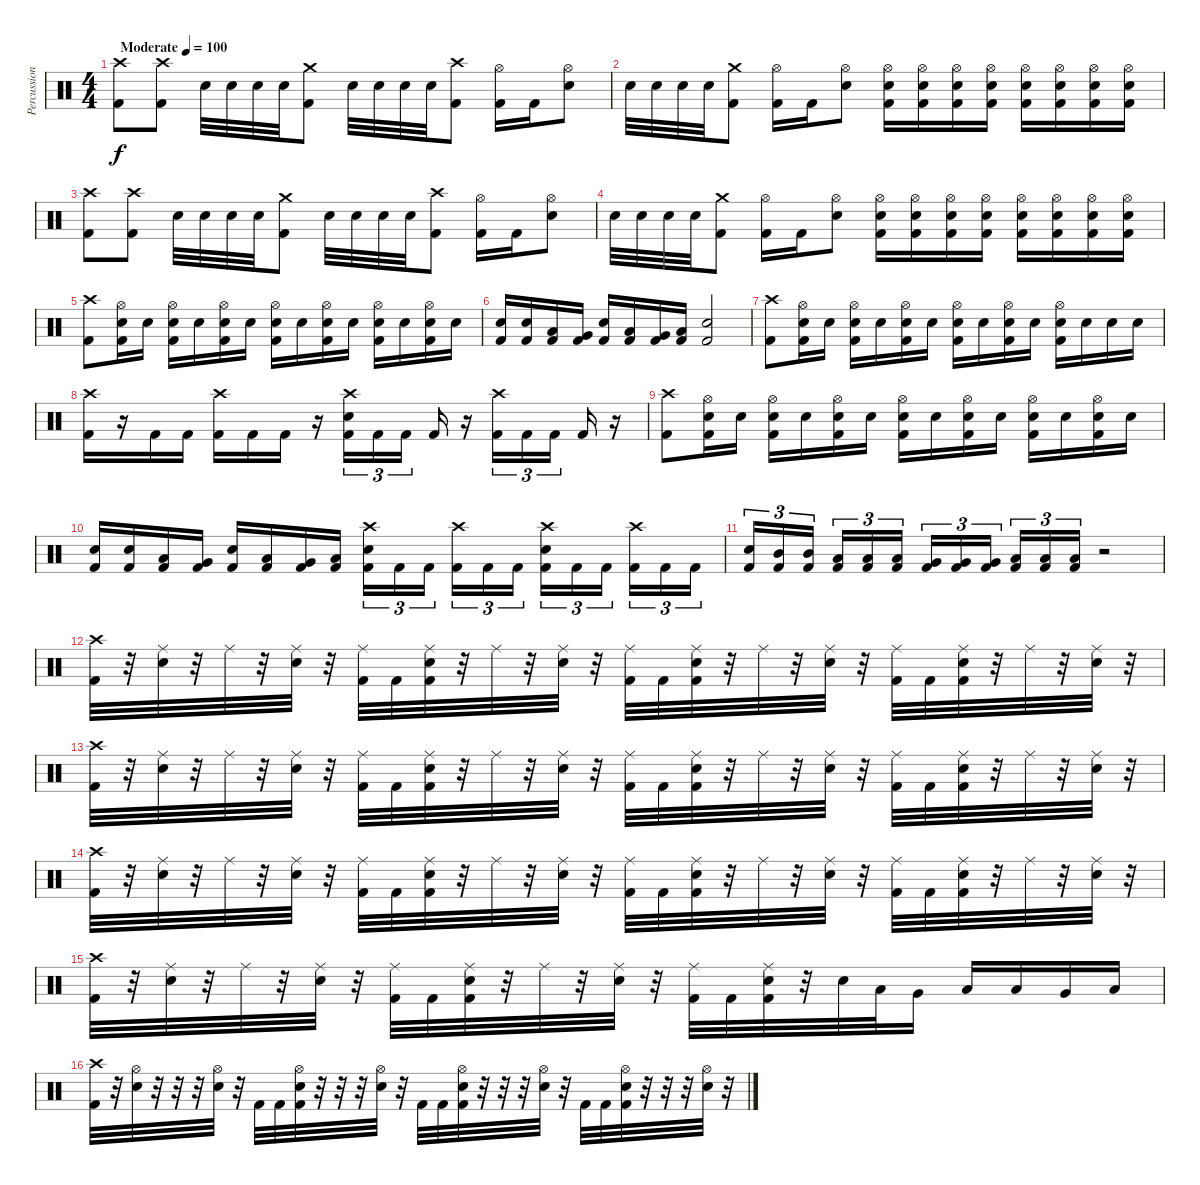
\track ("Percussion" "Percussion") {instrument percussion}
\staff {score}
\articulation defaults
\ts (4 4)
\tempo (100 "Moderate")
\clef neutral
\ks c
("Crash high (hit)" "Kick (hit) 2").8{dy f} ("Crash high (hit)" "Kick (hit) 2").8 "Electric Snare (hit)".32 "Electric Snare (hit)".32 "Electric Snare (hit)".32 "Electric Snare (hit)".32 ("Crash medium (hit)" "Kick (hit) 2").8 "Electric Snare (hit)".32 "Electric Snare (hit)".32 "Electric Snare (hit)".32 "Electric Snare (hit)".32 ("Crash high (hit)" "Kick (hit) 2").8 ("Hi-Hat (open)" "Kick (hit) 2").16 "Kick (hit) 2".16 ("Hi-Hat (open)" "Electric Snare (hit)").8 |
"Electric Snare (hit)".32 "Electric Snare (hit)".32 "Electric Snare (hit)".32 "Electric Snare (hit)".32 ("Crash medium (hit)" "Kick (hit) 2").8 ("Hi-Hat (open)" "Kick (hit) 2").16 "Kick (hit) 2".16 ("Hi-Hat (open)" "Electric Snare (hit)").8 ("Hi-Hat (open)" "Electric Snare (hit)" "Kick (hit) 2").16 ("Hi-Hat (open)" "Electric Snare (hit)" "Kick (hit) 2").16 ("Hi-Hat (open)" "Electric Snare (hit)" "Kick (hit) 2").16 ("Hi-Hat (open)" "Electric Snare (hit)" "Kick (hit) 2").16 ("Hi-Hat (open)" "Electric Snare (hit)" "Kick (hit) 2").16 ("Hi-Hat (open)" "Electric Snare (hit)" "Kick (hit) 2").16 ("Hi-Hat (open)" "Electric Snare (hit)" "Kick (hit) 2").16 ("Hi-Hat (open)" "Electric Snare (hit)" "Kick (hit) 2").16 |
("Crash high (hit)" "Kick (hit) 2").8 ("Crash high (hit)" "Kick (hit) 2").8 "Electric Snare (hit)".32 "Electric Snare (hit)".32 "Electric Snare (hit)".32 "Electric Snare (hit)".32 ("Crash medium (hit)" "Kick (hit) 2").8 "Electric Snare (hit)".32 "Electric Snare (hit)".32 "Electric Snare (hit)".32 "Electric Snare (hit)".32 ("Crash high (hit)" "Kick (hit) 2").8 ("Hi-Hat (open)" "Kick (hit) 2").16 "Kick (hit) 2".16 ("Hi-Hat (open)" "Electric Snare (hit)").8 |
"Electric Snare (hit)".32 "Electric Snare (hit)".32 "Electric Snare (hit)".32 "Electric Snare (hit)".32 ("Crash medium (hit)" "Kick (hit) 2").8 ("Hi-Hat (open)" "Kick (hit) 2").16 "Kick (hit) 2".16 ("Hi-Hat (open)" "Electric Snare (hit)").8 ("Hi-Hat (open)" "Electric Snare (hit)" "Kick (hit) 2").16 ("Hi-Hat (open)" "Electric Snare (hit)" "Kick (hit) 2").16 ("Hi-Hat (open)" "Electric Snare (hit)" "Kick (hit) 2").16 ("Hi-Hat (open)" "Electric Snare (hit)" "Kick (hit) 2").16 ("Hi-Hat (open)" "Electric Snare (hit)" "Kick (hit) 2").16 ("Hi-Hat (open)" "Electric Snare (hit)" "Kick (hit) 2").16 ("Hi-Hat (open)" "Electric Snare (hit)" "Kick (hit) 2").16 ("Hi-Hat (open)" "Electric Snare (hit)" "Kick (hit) 2").16 |
("Crash high (hit)" "Kick (hit) 2").8 ("Hi-Hat (open)" "Electric Snare (hit)" "Kick (hit) 2").16 "Electric Snare (hit)".16 ("Hi-Hat (open)" "Electric Snare (hit)" "Kick (hit) 2").16 "Electric Snare (hit)".16 ("Hi-Hat (open)" "Electric Snare (hit)" "Kick (hit) 2").16 "Electric Snare (hit)".16 ("Hi-Hat (open)" "Electric Snare (hit)" "Kick (hit) 2").16 "Electric Snare (hit)".16 ("Hi-Hat (open)" "Electric Snare (hit)" "Kick (hit) 2").16 "Electric Snare (hit)".16 ("Hi-Hat (open)" "Electric Snare (hit)" "Kick (hit) 2").16 "Electric Snare (hit)".16 ("Hi-Hat (open)" "Electric Snare (hit)" "Kick (hit) 2").16 "Electric Snare (hit)".16 |
("Electric Snare (hit)" "Kick (hit) 2").16 ("Electric Snare (hit)" "Kick (hit) 2").16 ("Low Tom (hit)" "Kick (hit) 2").16 ("Very Low Tom (hit)" "Kick (hit) 2").16 ("Electric Snare (hit)" "Kick (hit) 2").16 ("Low Tom (hit)" "Kick (hit) 2").16 ("Very Low Tom (hit)" "Kick (hit) 2").16 ("Low Floor Tom (hit)" "Kick (hit) 2").16 ("Electric Snare (hit)" "Kick (hit) 2").2 |
("Crash high (hit)" "Kick (hit) 2").8 ("Hi-Hat (open)" "Electric Snare (hit)" "Kick (hit) 2").16 "Electric Snare (hit)".16 ("Hi-Hat (open)" "Electric Snare (hit)" "Kick (hit) 2").16 "Electric Snare (hit)".16 ("Hi-Hat (open)" "Electric Snare (hit)" "Kick (hit) 2").16 "Electric Snare (hit)".16 ("Hi-Hat (open)" "Electric Snare (hit)" "Kick (hit) 2").16 "Electric Snare (hit)".16 ("Hi-Hat (open)" "Electric Snare (hit)" "Kick (hit) 2").16 "Electric Snare (hit)".16 ("Hi-Hat (open)" "Electric Snare (hit)" "Kick (hit) 2").16 "Electric Snare (hit)".16 "Electric Snare (hit)".16 "Electric Snare (hit)".16 |
("Crash high (hit)" "Kick (hit) 2").16 r.16 "Kick (hit) 2".16 "Kick (hit) 2".16 ("Crash high (hit)" "Kick (hit) 2").16 "Kick (hit) 2".16 "Kick (hit) 2".16 r.16 ("Crash high (hit)" "Electric Snare (hit)" "Kick (hit) 2").16{tu (3 2)} "Kick (hit) 2".16{tu (3 2)} "Kick (hit) 2".16{tu (3 2) beam splitsecondary} "Kick (hit) 2".16 r.16 ("Crash high (hit)" "Kick (hit) 2").16{tu (3 2)} "Kick (hit) 2".16{tu (3 2)} "Kick (hit) 2".16{tu (3 2) beam splitsecondary} "Kick (hit) 2".16 r.16 |
("Crash high (hit)" "Kick (hit) 2").8 ("Hi-Hat (open)" "Electric Snare (hit)" "Kick (hit) 2").16 "Electric Snare (hit)".16 ("Hi-Hat (open)" "Electric Snare (hit)" "Kick (hit) 2").16 "Electric Snare (hit)".16 ("Hi-Hat (open)" "Electric Snare (hit)" "Kick (hit) 2").16 "Electric Snare (hit)".16 ("Hi-Hat (open)" "Electric Snare (hit)" "Kick (hit) 2").16 "Electric Snare (hit)".16 ("Hi-Hat (open)" "Electric Snare (hit)" "Kick (hit) 2").16 "Electric Snare (hit)".16 ("Hi-Hat (open)" "Electric Snare (hit)" "Kick (hit) 2").16 "Electric Snare (hit)".16 ("Hi-Hat (open)" "Electric Snare (hit)" "Kick (hit) 2").16 "Electric Snare (hit)".16 |
("Electric Snare (hit)" "Kick (hit) 2").16 ("Electric Snare (hit)" "Kick (hit) 2").16 ("Low Tom (hit)" "Kick (hit) 2").16 ("Very Low Tom (hit)" "Kick (hit) 2").16 ("Electric Snare (hit)" "Kick (hit) 2").16 ("Low Tom (hit)" "Kick (hit) 2").16 ("Very Low Tom (hit)" "Kick (hit) 2").16 ("Low Floor Tom (hit)" "Kick (hit) 2").16 ("Crash high (hit)" "Electric Snare (hit)" "Kick (hit) 2").16{tu (3 2)} "Kick (hit) 2".16{tu (3 2)} "Kick (hit) 2".16{tu (3 2) beam splitsecondary} ("Crash high (hit)" "Kick (hit) 2").16{tu (3 2)} "Kick (hit) 2".16{tu (3 2)} "Kick (hit) 2".16{tu (3 2)} ("Crash high (hit)" "Electric Snare (hit)" "Kick (hit) 2").16{tu (3 2)} "Kick (hit) 2".16{tu (3 2)} "Kick (hit) 2".16{tu (3 2) beam splitsecondary} ("Crash high (hit)" "Kick (hit) 2").16{tu (3 2)} "Kick (hit) 2".16{tu (3 2)} "Kick (hit) 2".16{tu (3 2)} |
("Electric Snare (hit)" "Kick (hit) 2").16{tu (3 2)} ("Mid Tom (hit)" "Kick (hit) 2").16{tu (3 2)} ("Mid Tom (hit)" "Kick (hit) 2").16{tu (3 2) beam splitsecondary} ("Low Tom (hit)" "Kick (hit) 2").16{tu (3 2)} ("Low Tom (hit)" "Kick (hit) 2").16{tu (3 2)} ("Low Tom (hit)" "Kick (hit) 2").16{tu (3 2)} ("Very Low Tom (hit)" "Kick (hit) 2").16{tu (3 2)} ("Very Low Tom (hit)" "Kick (hit) 2").16{tu (3 2)} ("Very Low Tom (hit)" "Kick (hit) 2").16{tu (3 2) beam splitsecondary} ("Low Floor Tom (hit)" "Kick (hit) 2").16{tu (3 2)} ("Low Floor Tom (hit)" "Kick (hit) 2").16{tu (3 2)} ("Low Floor Tom (hit)" "Kick (hit) 2").16{tu (3 2)} r.2 |
("Crash high (hit)" "Kick (hit) 2").32 r.32 ("Ride (middle)" "Electric Snare (hit)").32 r.32 "Ride (middle)".32 r.32 ("Ride (middle)" "Electric Snare (hit)").32 r.32 ("Ride (middle)" "Kick (hit) 2").32 "Kick (hit) 2".32 ("Ride (middle)" "Electric Snare (hit)" "Kick (hit) 2").32 r.32 "Ride (middle)".32 r.32 ("Ride (middle)" "Electric Snare (hit)").32 r.32 ("Ride (middle)" "Kick (hit) 2").32 "Kick (hit) 2".32 ("Ride (middle)" "Electric Snare (hit)" "Kick (hit) 2").32 r.32 "Ride (middle)".32 r.32 ("Ride (middle)" "Electric Snare (hit)").32 r.32 ("Ride (middle)" "Kick (hit) 2").32 "Kick (hit) 2".32 ("Ride (middle)" "Electric Snare (hit)" "Kick (hit) 2").32 r.32 "Ride (middle)".32 r.32 ("Ride (middle)" "Electric Snare (hit)").32 r.32 |
("Crash high (hit)" "Kick (hit) 2").32 r.32 ("Ride (middle)" "Electric Snare (hit)").32 r.32 "Ride (middle)".32 r.32 ("Ride (middle)" "Electric Snare (hit)").32 r.32 ("Ride (middle)" "Kick (hit) 2").32 "Kick (hit) 2".32 ("Ride (middle)" "Electric Snare (hit)" "Kick (hit) 2").32 r.32 "Ride (middle)".32 r.32 ("Ride (middle)" "Electric Snare (hit)").32 r.32 ("Ride (middle)" "Kick (hit) 2").32 "Kick (hit) 2".32 ("Ride (middle)" "Electric Snare (hit)" "Kick (hit) 2").32 r.32 "Ride (middle)".32 r.32 ("Ride (middle)" "Electric Snare (hit)").32 r.32 ("Ride (middle)" "Kick (hit) 2").32 "Kick (hit) 2".32 ("Ride (middle)" "Electric Snare (hit)" "Kick (hit) 2").32 r.32 "Ride (middle)".32 r.32 ("Ride (middle)" "Electric Snare (hit)").32 r.32 |
("Crash high (hit)" "Kick (hit) 2").32 r.32 ("Ride (middle)" "Electric Snare (hit)").32 r.32 "Ride (middle)".32 r.32 ("Ride (middle)" "Electric Snare (hit)").32 r.32 ("Ride (middle)" "Kick (hit) 2").32 "Kick (hit) 2".32 ("Ride (middle)" "Electric Snare (hit)" "Kick (hit) 2").32 r.32 "Ride (middle)".32 r.32 ("Ride (middle)" "Electric Snare (hit)").32 r.32 ("Ride (middle)" "Kick (hit) 2").32 "Kick (hit) 2".32 ("Ride (middle)" "Electric Snare (hit)" "Kick (hit) 2").32 r.32 "Ride (middle)".32 r.32 ("Ride (middle)" "Electric Snare (hit)").32 r.32 ("Ride (middle)" "Kick (hit) 2").32 "Kick (hit) 2".32 ("Ride (middle)" "Electric Snare (hit)" "Kick (hit) 2").32 r.32 "Ride (middle)".32 r.32 ("Ride (middle)" "Electric Snare (hit)").32 r.32 |
("Crash high (hit)" "Kick (hit) 2").32 r.32 ("Ride (middle)" "Electric Snare (hit)").32 r.32 "Ride (middle)".32 r.32 ("Ride (middle)" "Electric Snare (hit)").32 r.32 ("Ride (middle)" "Kick (hit) 2").32 "Kick (hit) 2".32 ("Ride (middle)" "Electric Snare (hit)" "Kick (hit) 2").32 r.32 "Ride (middle)".32 r.32 ("Ride (middle)" "Electric Snare (hit)").32 r.32 ("Ride (middle)" "Kick (hit) 2").32 "Kick (hit) 2".32 ("Ride (middle)" "Electric Snare (hit)" "Kick (hit) 2").32 r.32 "Electric Snare (hit)".32 "Low Tom (hit)".32 "Very Low Tom (hit)".16 "Low Floor Tom (hit)".16 "Low Tom (hit)".16 "Very Low Tom (hit)".16 "Low Floor Tom (hit)".16 |
("Crash high (hit)" "Kick (hit) 2").32 r.32 ("Hi-Hat (open)" "Electric Snare (hit)").32 r.32 r.32 r.32 ("Hi-Hat (open)" "Electric Snare (hit)").32 r.32 "Kick (hit) 2".32 "Kick (hit) 2".32 ("Hi-Hat (open)" "Electric Snare (hit)" "Kick (hit) 2").32 r.32 r.32 r.32 ("Hi-Hat (open)" "Electric Snare (hit)").32 r.32 "Kick (hit) 2".32 "Kick (hit) 2".32 ("Hi-Hat (open)" "Electric Snare (hit)" "Kick (hit) 2").32 r.32 r.32 r.32 ("Hi-Hat (open)" "Electric Snare (hit)").32 r.32 "Kick (hit) 2".32 "Kick (hit) 2".32 ("Hi-Hat (open)" "Electric Snare (hit)" "Kick (hit) 2").32 r.32 r.32 r.32 ("Hi-Hat (open)" "Electric Snare (hit)").32 r.32
